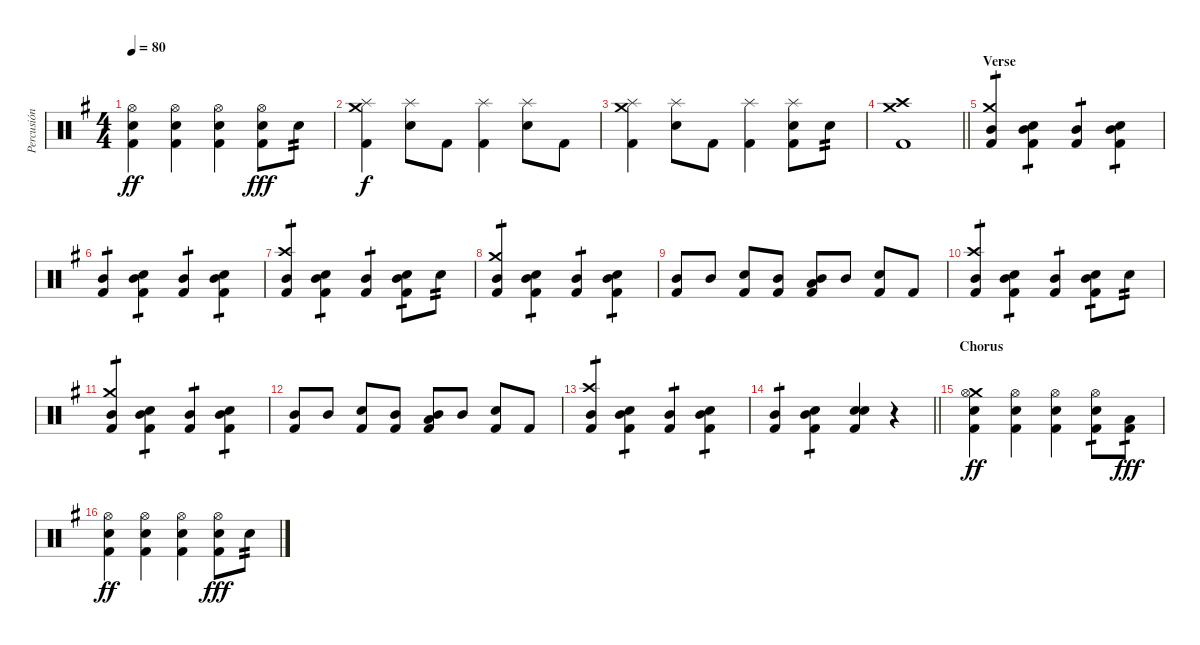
\track ("Percusión" "Percusión") {instrument percussion}
\staff {score}
\articulation defaults
\ts (4 4)
\tempo 80
\clef neutral
\ks eminor
("Hi-Hat (open)" "Electric Snare (hit)" "Kick (hit) 2").4{dy ff} ("Hi-Hat (open)" "Electric Snare (hit)" "Kick (hit) 2").4 ("Hi-Hat (open)" "Electric Snare (hit)" "Kick (hit) 2").4 ("Hi-Hat (open)" "Electric Snare (hit)" "Kick (hit) 2").8{dy fff} "Electric Snare (hit)".8{tp 2} |
("Crash medium (hit)" "Splash (hit)" "Kick (hit) 2").4{dy f} ("Splash (hit)" "Electric Snare (hit)").8 "Kick (hit) 2".8 ("Splash (hit)" "Kick (hit) 2").4 ("Splash (hit)" "Electric Snare (hit)").8 "Kick (hit) 2".8 |
("Crash medium (hit)" "Splash (hit)" "Kick (hit) 2").4 ("Splash (hit)" "Electric Snare (hit)").8 "Kick (hit) 2".8 ("Splash (hit)" "Kick (hit) 2").4 ("Splash (hit)" "Electric Snare (hit)" "Kick (hit) 2").8 "Electric Snare (hit)".8{tp 2} |
\barLineRight lightlight
("Crash medium (hit)" "Crash high (hit)" "Kick (hit) 2").1 |
\section ("" "Verse")
("Crash medium (hit)" "Mid Tom (hit)" "Kick (hit) 2").4{tp 1} ("Mid Tom (hit)" "Electric Snare (hit)" "Kick (hit) 2").4{tp 1} ("Mid Tom (hit)" "Kick (hit) 2").4{tp 1} ("Mid Tom (hit)" "Electric Snare (hit)" "Kick (hit) 2").4{tp 1} |
("Mid Tom (hit)" "Kick (hit) 2").4{tp 1} ("Mid Tom (hit)" "Electric Snare (hit)" "Kick (hit) 2").4{tp 1} ("Mid Tom (hit)" "Kick (hit) 2").4{tp 1} ("Mid Tom (hit)" "Electric Snare (hit)" "Kick (hit) 2").4{tp 1} |
("Crash high (hit)" "Mid Tom (hit)" "Kick (hit) 2").4{tp 1} ("Mid Tom (hit)" "Electric Snare (hit)" "Kick (hit) 2").4{tp 1} ("Mid Tom (hit)" "Kick (hit) 2").4{tp 1} ("Mid Tom (hit)" "Electric Snare (hit)" "Kick (hit) 2").8{tp 1} "Electric Snare (hit)".8{tp 2} |
("Crash medium (hit)" "Mid Tom (hit)" "Kick (hit) 2").4{tp 1} ("Mid Tom (hit)" "Electric Snare (hit)" "Kick (hit) 2").4{tp 1} ("Mid Tom (hit)" "Kick (hit) 2").4{tp 1} ("Mid Tom (hit)" "Electric Snare (hit)" "Kick (hit) 2").4{tp 1} |
("Mid Tom (hit)" "Kick (hit) 2").8 "Mid Tom (hit)".8 ("Electric Snare (hit)" "Kick (hit) 2").8 ("Mid Tom (hit)" "Kick (hit) 2").8 ("Low Tom (hit)" "Mid Tom (hit)" "Kick (hit) 2").8 "Mid Tom (hit)".8 ("Electric Snare (hit)" "Kick (hit) 2").8 "Kick (hit) 2".8 |
("Crash high (hit)" "Mid Tom (hit)" "Kick (hit) 2").4{tp 1} ("Mid Tom (hit)" "Electric Snare (hit)" "Kick (hit) 2").4{tp 1} ("Mid Tom (hit)" "Kick (hit) 2").4{tp 1} ("Mid Tom (hit)" "Electric Snare (hit)" "Kick (hit) 2").8{tp 1} "Electric Snare (hit)".8{tp 2} |
("Crash medium (hit)" "Mid Tom (hit)" "Kick (hit) 2").4{tp 1} ("Mid Tom (hit)" "Electric Snare (hit)" "Kick (hit) 2").4{tp 1} ("Mid Tom (hit)" "Kick (hit) 2").4{tp 1} ("Mid Tom (hit)" "Electric Snare (hit)" "Kick (hit) 2").4{tp 1} |
("Mid Tom (hit)" "Kick (hit) 2").8 "Mid Tom (hit)".8 ("Electric Snare (hit)" "Kick (hit) 2").8 ("Mid Tom (hit)" "Kick (hit) 2").8 ("Low Tom (hit)" "Mid Tom (hit)" "Kick (hit) 2").8 "Mid Tom (hit)".8 ("Electric Snare (hit)" "Kick (hit) 2").8 "Kick (hit) 2".8 |
("Crash high (hit)" "Mid Tom (hit)" "Kick (hit) 2").4{tp 1} ("Mid Tom (hit)" "Electric Snare (hit)" "Kick (hit) 2").4{tp 1} ("Mid Tom (hit)" "Kick (hit) 2").4{tp 1} ("Mid Tom (hit)" "Electric Snare (hit)" "Kick (hit) 2").4{tp 1} |
\barLineRight lightlight
("Mid Tom (hit)" "Kick (hit) 2").4{tp 1} ("Mid Tom (hit)" "Electric Snare (hit)" "Kick (hit) 2").4{tp 1} ("Electric Snare (hit)" "Electric Snare (hit)" "Kick (hit) 2").4 r.4 |
\section ("" "Chorus")
("Crash medium (hit)" "Hi-Hat (open)" "Electric Snare (hit)" "Kick (hit) 2").4{dy ff} ("Hi-Hat (open)" "Electric Snare (hit)" "Kick (hit) 2").4 ("Hi-Hat (open)" "Electric Snare (hit)" "Kick (hit) 2").4 ("Hi-Hat (open)" "Electric Snare (hit)" "Kick (hit) 2").8{tp 1} ("Low Tom (hit)" "Kick (hit) 2").8{tp 1 dy fff} |
("Hi-Hat (open)" "Electric Snare (hit)" "Kick (hit) 2").4{dy ff} ("Hi-Hat (open)" "Electric Snare (hit)" "Kick (hit) 2").4 ("Hi-Hat (open)" "Electric Snare (hit)" "Kick (hit) 2").4 ("Hi-Hat (open)" "Electric Snare (hit)" "Kick (hit) 2").8{dy fff} "Electric Snare (hit)".8{tp 2}
